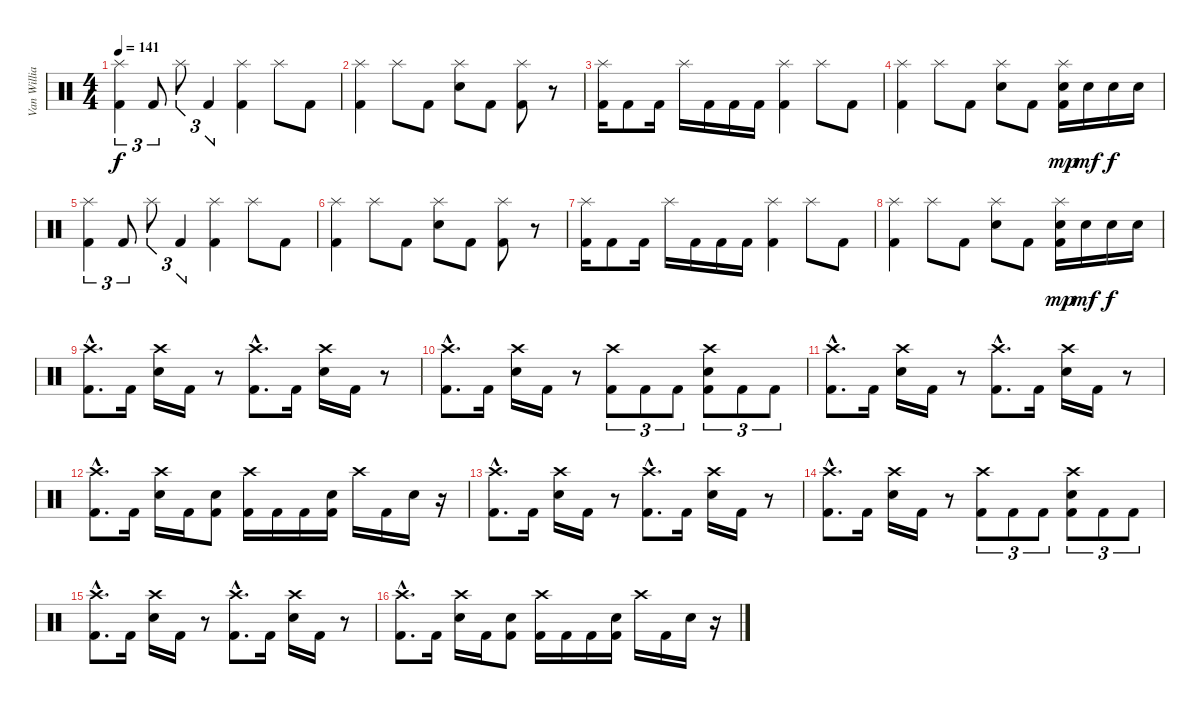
\track ("Van Williams" "Van Willia") {instrument percussion}
\staff {score}
\articulation defaults
\ts (4 4)
\tempo 141
\clef neutral
\ks c
("Splash (hit)" "Kick (hit) 2").4{tu (3 2) dy f} "Kick (hit) 2".8{tu (3 2)} "Splash (hit)".8{tu (3 2)} "Kick (hit) 2".4{tu (3 2)} ("Splash (hit)" "Kick (hit) 2").4 "Splash (hit)".8 "Kick (hit) 2".8 |
("Splash (hit)" "Kick (hit) 2").4 "Splash (hit)".8 "Kick (hit) 2".8 ("Splash (hit)" "Electric Snare (hit)").8 "Kick (hit) 2".8 ("Splash (hit)" "Kick (hit) 2").8 r.8 |
("Splash (hit)" "Kick (hit) 2").16 "Kick (hit) 2".8 "Kick (hit) 2".16 "Splash (hit)".16 "Kick (hit) 2".16 "Kick (hit) 2".16 "Kick (hit) 2".16 ("Splash (hit)" "Kick (hit) 2").4 "Splash (hit)".8 "Kick (hit) 2".8 |
("Splash (hit)" "Kick (hit) 2").4 "Splash (hit)".8 "Kick (hit) 2".8 ("Splash (hit)" "Electric Snare (hit)").8 "Kick (hit) 2".8 ("Splash (hit)" "Electric Snare (hit)" "Kick (hit) 2").16{dy mp} "Electric Snare (hit)".16{dy mf} "Electric Snare (hit)".16{dy f} "Electric Snare (hit)".16 |
("Splash (hit)" "Kick (hit) 2").4{tu (3 2)} "Kick (hit) 2".8{tu (3 2)} "Splash (hit)".8{tu (3 2)} "Kick (hit) 2".4{tu (3 2)} ("Splash (hit)" "Kick (hit) 2").4 "Splash (hit)".8 "Kick (hit) 2".8 |
("Splash (hit)" "Kick (hit) 2").4 "Splash (hit)".8 "Kick (hit) 2".8 ("Splash (hit)" "Electric Snare (hit)").8 "Kick (hit) 2".8 ("Splash (hit)" "Kick (hit) 2").8 r.8 |
("Splash (hit)" "Kick (hit) 2").16 "Kick (hit) 2".8 "Kick (hit) 2".16 "Splash (hit)".16 "Kick (hit) 2".16 "Kick (hit) 2".16 "Kick (hit) 2".16 ("Splash (hit)" "Kick (hit) 2").4 "Splash (hit)".8 "Kick (hit) 2".8 |
("Splash (hit)" "Kick (hit) 2").4 "Splash (hit)".8 "Kick (hit) 2".8 ("Splash (hit)" "Electric Snare (hit)").8 "Kick (hit) 2".8 ("Splash (hit)" "Electric Snare (hit)" "Kick (hit) 2").16{dy mp} "Electric Snare (hit)".16{dy mf} "Electric Snare (hit)".16{dy f} "Electric Snare (hit)".16 |
("Crash high (hit)"{hac} "Kick (hit) 2"{hac}).8{d} "Kick (hit) 2".16 ("Crash high (hit)" "Electric Snare (hit)").16 "Kick (hit) 2".16 r.8 ("Crash high (hit)"{hac} "Kick (hit) 2"{hac}).8{d} "Kick (hit) 2".16 ("Crash high (hit)" "Electric Snare (hit)").16 "Kick (hit) 2".16 r.8 |
("Crash high (hit)"{hac} "Kick (hit) 2"{hac}).8{d} "Kick (hit) 2".16 ("Crash high (hit)" "Electric Snare (hit)").16 "Kick (hit) 2".16 r.8 ("Crash high (hit)" "Kick (hit) 2").8{tu (3 2)} "Kick (hit) 2".8{tu (3 2)} "Kick (hit) 2".8{tu (3 2)} ("Crash high (hit)" "Electric Snare (hit)" "Kick (hit) 2").8{tu (3 2)} "Kick (hit) 2".8{tu (3 2)} "Kick (hit) 2".8{tu (3 2)} |
("Crash high (hit)"{hac} "Kick (hit) 2"{hac}).8{d} "Kick (hit) 2".16 ("Crash high (hit)" "Electric Snare (hit)").16 "Kick (hit) 2".16 r.8 ("Crash high (hit)"{hac} "Kick (hit) 2"{hac}).8{d} "Kick (hit) 2".16 ("Crash high (hit)" "Electric Snare (hit)").16 "Kick (hit) 2".16 r.8 |
("Crash high (hit)"{hac} "Kick (hit) 2"{hac}).8{d} "Kick (hit) 2".16 ("Crash high (hit)" "Electric Snare (hit)").16 "Kick (hit) 2".16 ("Electric Snare (hit)" "Kick (hit) 2").8 ("Crash high (hit)" "Kick (hit) 2").16 "Kick (hit) 2".16 "Kick (hit) 2".16 ("Electric Snare (hit)" "Kick (hit) 2").16 "Crash high (hit)".16 "Kick (hit) 2".16 "Electric Snare (hit)".16 r.16 |
("Crash high (hit)"{hac} "Kick (hit) 2"{hac}).8{d} "Kick (hit) 2".16 ("Crash high (hit)" "Electric Snare (hit)").16 "Kick (hit) 2".16 r.8 ("Crash high (hit)"{hac} "Kick (hit) 2"{hac}).8{d} "Kick (hit) 2".16 ("Crash high (hit)" "Electric Snare (hit)").16 "Kick (hit) 2".16 r.8 |
("Crash high (hit)"{hac} "Kick (hit) 2"{hac}).8{d} "Kick (hit) 2".16 ("Crash high (hit)" "Electric Snare (hit)").16 "Kick (hit) 2".16 r.8 ("Crash high (hit)" "Kick (hit) 2").8{tu (3 2)} "Kick (hit) 2".8{tu (3 2)} "Kick (hit) 2".8{tu (3 2)} ("Crash high (hit)" "Electric Snare (hit)" "Kick (hit) 2").8{tu (3 2)} "Kick (hit) 2".8{tu (3 2)} "Kick (hit) 2".8{tu (3 2)} |
("Crash high (hit)"{hac} "Kick (hit) 2"{hac}).8{d} "Kick (hit) 2".16 ("Crash high (hit)" "Electric Snare (hit)").16 "Kick (hit) 2".16 r.8 ("Crash high (hit)"{hac} "Kick (hit) 2"{hac}).8{d} "Kick (hit) 2".16 ("Crash high (hit)" "Electric Snare (hit)").16 "Kick (hit) 2".16 r.8 |
("Crash high (hit)"{hac} "Kick (hit) 2"{hac}).8{d} "Kick (hit) 2".16 ("Crash high (hit)" "Electric Snare (hit)").16 "Kick (hit) 2".16 ("Electric Snare (hit)" "Kick (hit) 2").8 ("Crash high (hit)" "Kick (hit) 2").16 "Kick (hit) 2".16 "Kick (hit) 2".16 ("Electric Snare (hit)" "Kick (hit) 2").16 "Crash high (hit)".16 "Kick (hit) 2".16 "Electric Snare (hit)".16 r.16
